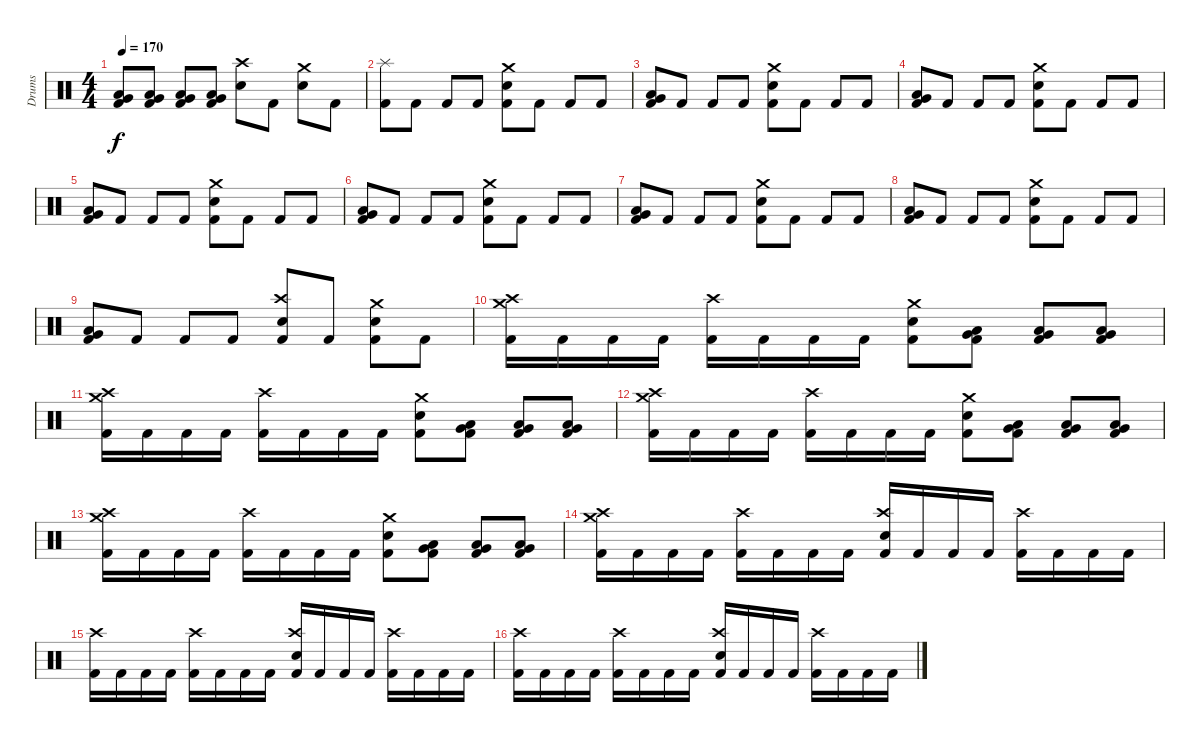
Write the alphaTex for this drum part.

\track ("Drums" "Drums") {instrument percussion}
\staff {score}
\articulation defaults
\ts (4 4)
\tempo 170
\clef neutral
\ks c
("Very Low Tom (hit)" "Low Tom (hit)" "Kick (hit) 2").8{dy f} ("Very Low Tom (hit)" "Low Tom (hit)" "Kick (hit) 2").8 ("Very Low Tom (hit)" "Low Tom (hit)" "Kick (hit) 2").8 ("Very Low Tom (hit)" "Low Tom (hit)" "Kick (hit) 2").8 ("Crash high (hit)" "Snare (hit) 2").8 "Kick (hit) 2".8 ("Crash medium (hit)" "Snare (hit) 2").8 "Kick (hit) 2".8 |
("Splash (hit)" "Kick (hit) 2").8 "Kick (hit) 2".8 "Kick (hit) 2".8 "Kick (hit) 2".8 ("Crash medium (hit)" "Snare (hit) 2" "Kick (hit) 2").8 "Kick (hit) 2".8 "Kick (hit) 2".8 "Kick (hit) 2".8 |
("Very Low Tom (hit)" "Low Tom (hit)" "Kick (hit) 2").8 "Kick (hit) 2".8 "Kick (hit) 2".8 "Kick (hit) 2".8 ("Crash medium (hit)" "Snare (hit) 2" "Kick (hit) 2").8 "Kick (hit) 2".8 "Kick (hit) 2".8 "Kick (hit) 2".8 |
("Very Low Tom (hit)" "Low Tom (hit)" "Kick (hit) 2").8 "Kick (hit) 2".8 "Kick (hit) 2".8 "Kick (hit) 2".8 ("Crash medium (hit)" "Snare (hit) 2" "Kick (hit) 2").8 "Kick (hit) 2".8 "Kick (hit) 2".8 "Kick (hit) 2".8 |
("Very Low Tom (hit)" "Low Tom (hit)" "Kick (hit) 2").8 "Kick (hit) 2".8 "Kick (hit) 2".8 "Kick (hit) 2".8 ("Crash medium (hit)" "Snare (hit) 2" "Kick (hit) 2").8 "Kick (hit) 2".8 "Kick (hit) 2".8 "Kick (hit) 2".8 |
("Very Low Tom (hit)" "Low Tom (hit)" "Kick (hit) 2").8 "Kick (hit) 2".8 "Kick (hit) 2".8 "Kick (hit) 2".8 ("Crash medium (hit)" "Snare (hit) 2" "Kick (hit) 2").8 "Kick (hit) 2".8 "Kick (hit) 2".8 "Kick (hit) 2".8 |
("Very Low Tom (hit)" "Low Tom (hit)" "Kick (hit) 2").8 "Kick (hit) 2".8 "Kick (hit) 2".8 "Kick (hit) 2".8 ("Crash medium (hit)" "Snare (hit) 2" "Kick (hit) 2").8 "Kick (hit) 2".8 "Kick (hit) 2".8 "Kick (hit) 2".8 |
("Very Low Tom (hit)" "Low Tom (hit)" "Kick (hit) 2").8 "Kick (hit) 2".8 "Kick (hit) 2".8 "Kick (hit) 2".8 ("Crash medium (hit)" "Snare (hit) 2" "Kick (hit) 2").8 "Kick (hit) 2".8 "Kick (hit) 2".8 "Kick (hit) 2".8 |
("Very Low Tom (hit)" "Low Tom (hit)" "Kick (hit) 2").8 "Kick (hit) 2".8 "Kick (hit) 2".8 "Kick (hit) 2".8 ("Crash high (hit)" "Snare (hit) 2" "Kick (hit) 2").8 "Kick (hit) 2".8 ("Crash medium (hit)" "Snare (hit) 2" "Kick (hit) 2").8 "Kick (hit) 2".8 |
("Crash medium (hit)" "Crash high (hit)" "Kick (hit) 2").16 "Kick (hit) 2".16 "Kick (hit) 2".16 "Kick (hit) 2".16 ("Crash high (hit)" "Kick (hit) 2").16 "Kick (hit) 2".16 "Kick (hit) 2".16 "Kick (hit) 2".16 ("Crash medium (hit)" "Snare (hit) 2" "Kick (hit) 2").8 ("Very Low Tom (hit)" "Low Tom (hit)" "Kick (hit) 2").8 ("Very Low Tom (hit)" "Low Tom (hit)" "Kick (hit) 2").8 ("Very Low Tom (hit)" "Low Tom (hit)" "Kick (hit) 2").8 |
("Crash medium (hit)" "Crash high (hit)" "Kick (hit) 2").16 "Kick (hit) 2".16 "Kick (hit) 2".16 "Kick (hit) 2".16 ("Crash high (hit)" "Kick (hit) 2").16 "Kick (hit) 2".16 "Kick (hit) 2".16 "Kick (hit) 2".16 ("Crash medium (hit)" "Snare (hit) 2" "Kick (hit) 2").8 ("Very Low Tom (hit)" "Low Tom (hit)" "Kick (hit) 2").8 ("Very Low Tom (hit)" "Low Tom (hit)" "Kick (hit) 2").8 ("Very Low Tom (hit)" "Low Tom (hit)" "Kick (hit) 2").8 |
("Crash medium (hit)" "Crash high (hit)" "Kick (hit) 2").16 "Kick (hit) 2".16 "Kick (hit) 2".16 "Kick (hit) 2".16 ("Crash high (hit)" "Kick (hit) 2").16 "Kick (hit) 2".16 "Kick (hit) 2".16 "Kick (hit) 2".16 ("Crash medium (hit)" "Snare (hit) 2" "Kick (hit) 2").8 ("Very Low Tom (hit)" "Low Tom (hit)" "Kick (hit) 2").8 ("Very Low Tom (hit)" "Low Tom (hit)" "Kick (hit) 2").8 ("Very Low Tom (hit)" "Low Tom (hit)" "Kick (hit) 2").8 |
("Crash medium (hit)" "Crash high (hit)" "Kick (hit) 2").16 "Kick (hit) 2".16 "Kick (hit) 2".16 "Kick (hit) 2".16 ("Crash high (hit)" "Kick (hit) 2").16 "Kick (hit) 2".16 "Kick (hit) 2".16 "Kick (hit) 2".16 ("Crash medium (hit)" "Snare (hit) 2" "Kick (hit) 2").8 ("Very Low Tom (hit)" "Low Tom (hit)" "Kick (hit) 2").8 ("Very Low Tom (hit)" "Low Tom (hit)" "Kick (hit) 2").8 ("Very Low Tom (hit)" "Low Tom (hit)" "Kick (hit) 2").8 |
("Crash medium (hit)" "Crash high (hit)" "Kick (hit) 2").16 "Kick (hit) 2".16 "Kick (hit) 2".16 "Kick (hit) 2".16 ("Crash high (hit)" "Kick (hit) 2").16 "Kick (hit) 2".16 "Kick (hit) 2".16 "Kick (hit) 2".16 ("Crash high (hit)" "Snare (hit) 2" "Kick (hit) 2").16 "Kick (hit) 2".16 "Kick (hit) 2".16 "Kick (hit) 2".16 ("Crash high (hit)" "Kick (hit) 2").16 "Kick (hit) 2".16 "Kick (hit) 2".16 "Kick (hit) 2".16 |
("Crash high (hit)" "Kick (hit) 2").16 "Kick (hit) 2".16 "Kick (hit) 2".16 "Kick (hit) 2".16 ("Crash high (hit)" "Kick (hit) 2").16 "Kick (hit) 2".16 "Kick (hit) 2".16 "Kick (hit) 2".16 ("Crash high (hit)" "Snare (hit) 2" "Kick (hit) 2").16 "Kick (hit) 2".16 "Kick (hit) 2".16 "Kick (hit) 2".16 ("Crash high (hit)" "Kick (hit) 2").16 "Kick (hit) 2".16 "Kick (hit) 2".16 "Kick (hit) 2".16 |
("Crash high (hit)" "Kick (hit) 2").16 "Kick (hit) 2".16 "Kick (hit) 2".16 "Kick (hit) 2".16 ("Crash high (hit)" "Kick (hit) 2").16 "Kick (hit) 2".16 "Kick (hit) 2".16 "Kick (hit) 2".16 ("Crash high (hit)" "Snare (hit) 2" "Kick (hit) 2").16 "Kick (hit) 2".16 "Kick (hit) 2".16 "Kick (hit) 2".16 ("Crash high (hit)" "Kick (hit) 2").16 "Kick (hit) 2".16 "Kick (hit) 2".16 "Kick (hit) 2".16
